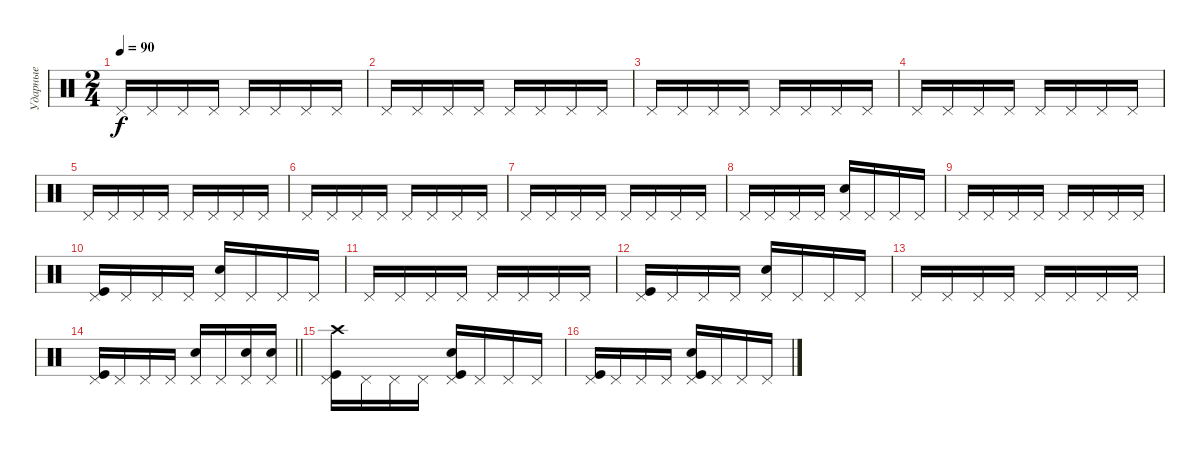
\track ("Ударные" "Ударные") {instrument percussion}
\staff {score}
\articulation defaults
\ts (2 4)
\tempo 90
\clef neutral
\ks c "Pedal Hi-Hat (hit)".16{dy f} "Pedal Hi-Hat (hit)".16 "Pedal Hi-Hat (hit)".16 "Pedal Hi-Hat (hit)".16 "Pedal Hi-Hat (hit)".16 "Pedal Hi-Hat (hit)".16 "Pedal Hi-Hat (hit)".16 "Pedal Hi-Hat (hit)".16
|
"Pedal Hi-Hat (hit)".16 "Pedal Hi-Hat (hit)".16 "Pedal Hi-Hat (hit)".16 "Pedal Hi-Hat (hit)".16 "Pedal Hi-Hat (hit)".16 "Pedal Hi-Hat (hit)".16 "Pedal Hi-Hat (hit)".16 "Pedal Hi-Hat (hit)".16 |
"Pedal Hi-Hat (hit)".16 "Pedal Hi-Hat (hit)".16 "Pedal Hi-Hat (hit)".16 "Pedal Hi-Hat (hit)".16 "Pedal Hi-Hat (hit)".16 "Pedal Hi-Hat (hit)".16 "Pedal Hi-Hat (hit)".16 "Pedal Hi-Hat (hit)".16 |
"Pedal Hi-Hat (hit)".16 "Pedal Hi-Hat (hit)".16 "Pedal Hi-Hat (hit)".16 "Pedal Hi-Hat (hit)".16 "Pedal Hi-Hat (hit)".16 "Pedal Hi-Hat (hit)".16 "Pedal Hi-Hat (hit)".16 "Pedal Hi-Hat (hit)".16 |
"Pedal Hi-Hat (hit)".16 "Pedal Hi-Hat (hit)".16 "Pedal Hi-Hat (hit)".16 "Pedal Hi-Hat (hit)".16 "Pedal Hi-Hat (hit)".16 "Pedal Hi-Hat (hit)".16 "Pedal Hi-Hat (hit)".16 "Pedal Hi-Hat (hit)".16 |
"Pedal Hi-Hat (hit)".16 "Pedal Hi-Hat (hit)".16 "Pedal Hi-Hat (hit)".16 "Pedal Hi-Hat (hit)".16 "Pedal Hi-Hat (hit)".16 "Pedal Hi-Hat (hit)".16 "Pedal Hi-Hat (hit)".16 "Pedal Hi-Hat (hit)".16 |
"Pedal Hi-Hat (hit)".16 "Pedal Hi-Hat (hit)".16 "Pedal Hi-Hat (hit)".16 "Pedal Hi-Hat (hit)".16 "Pedal Hi-Hat (hit)".16 "Pedal Hi-Hat (hit)".16 "Pedal Hi-Hat (hit)".16 "Pedal Hi-Hat (hit)".16 |
"Pedal Hi-Hat (hit)".16 "Pedal Hi-Hat (hit)".16 "Pedal Hi-Hat (hit)".16 "Pedal Hi-Hat (hit)".16 ("Pedal Hi-Hat (hit)" "Snare (hit) 2").16 "Pedal Hi-Hat (hit)".16 "Pedal Hi-Hat (hit)".16 "Pedal Hi-Hat (hit)".16 |
"Pedal Hi-Hat (hit)".16 "Pedal Hi-Hat (hit)".16 "Pedal Hi-Hat (hit)".16 "Pedal Hi-Hat (hit)".16 "Pedal Hi-Hat (hit)".16 "Pedal Hi-Hat (hit)".16 "Pedal Hi-Hat (hit)".16 "Pedal Hi-Hat (hit)".16 |
("Pedal Hi-Hat (hit)" "Kick (hit)").16 "Pedal Hi-Hat (hit)".16 "Pedal Hi-Hat (hit)".16 "Pedal Hi-Hat (hit)".16 ("Pedal Hi-Hat (hit)" "Snare (hit) 2").16 "Pedal Hi-Hat (hit)".16 "Pedal Hi-Hat (hit)".16 "Pedal Hi-Hat (hit)".16 |
"Pedal Hi-Hat (hit)".16 "Pedal Hi-Hat (hit)".16 "Pedal Hi-Hat (hit)".16 "Pedal Hi-Hat (hit)".16 "Pedal Hi-Hat (hit)".16 "Pedal Hi-Hat (hit)".16 "Pedal Hi-Hat (hit)".16 "Pedal Hi-Hat (hit)".16 |
("Pedal Hi-Hat (hit)" "Kick (hit)").16 "Pedal Hi-Hat (hit)".16 "Pedal Hi-Hat (hit)".16 "Pedal Hi-Hat (hit)".16 ("Pedal Hi-Hat (hit)" "Snare (hit) 2").16 "Pedal Hi-Hat (hit)".16 "Pedal Hi-Hat (hit)".16 "Pedal Hi-Hat (hit)".16 |
"Pedal Hi-Hat (hit)".16 "Pedal Hi-Hat (hit)".16 "Pedal Hi-Hat (hit)".16 "Pedal Hi-Hat (hit)".16 "Pedal Hi-Hat (hit)".16 "Pedal Hi-Hat (hit)".16 "Pedal Hi-Hat (hit)".16 "Pedal Hi-Hat (hit)".16 |
\barLineRight lightlight
("Pedal Hi-Hat (hit)" "Kick (hit)").16 "Pedal Hi-Hat (hit)".16 "Pedal Hi-Hat (hit)".16 "Pedal Hi-Hat (hit)".16 ("Pedal Hi-Hat (hit)" "Snare (hit) 2").16 "Pedal Hi-Hat (hit)".16 ("Pedal Hi-Hat (hit)" "Snare (hit) 2").16 ("Pedal Hi-Hat (hit)" "Snare (hit) 2").16 |
\section ("" "")
("Pedal Hi-Hat (hit)" "Crash high (hit)" "Kick (hit)").16 "Pedal Hi-Hat (hit)".16 "Pedal Hi-Hat (hit)".16 "Pedal Hi-Hat (hit)".16 ("Pedal Hi-Hat (hit)" "Kick (hit)" "Snare (hit) 2").16 "Pedal Hi-Hat (hit)".16 "Pedal Hi-Hat (hit)".16 "Pedal Hi-Hat (hit)".16 |
("Pedal Hi-Hat (hit)" "Kick (hit)").16 "Pedal Hi-Hat (hit)".16 "Pedal Hi-Hat (hit)".16 "Pedal Hi-Hat (hit)".16 ("Pedal Hi-Hat (hit)" "Kick (hit)" "Snare (hit) 2").16 "Pedal Hi-Hat (hit)".16 "Pedal Hi-Hat (hit)".16 "Pedal Hi-Hat (hit)".16
